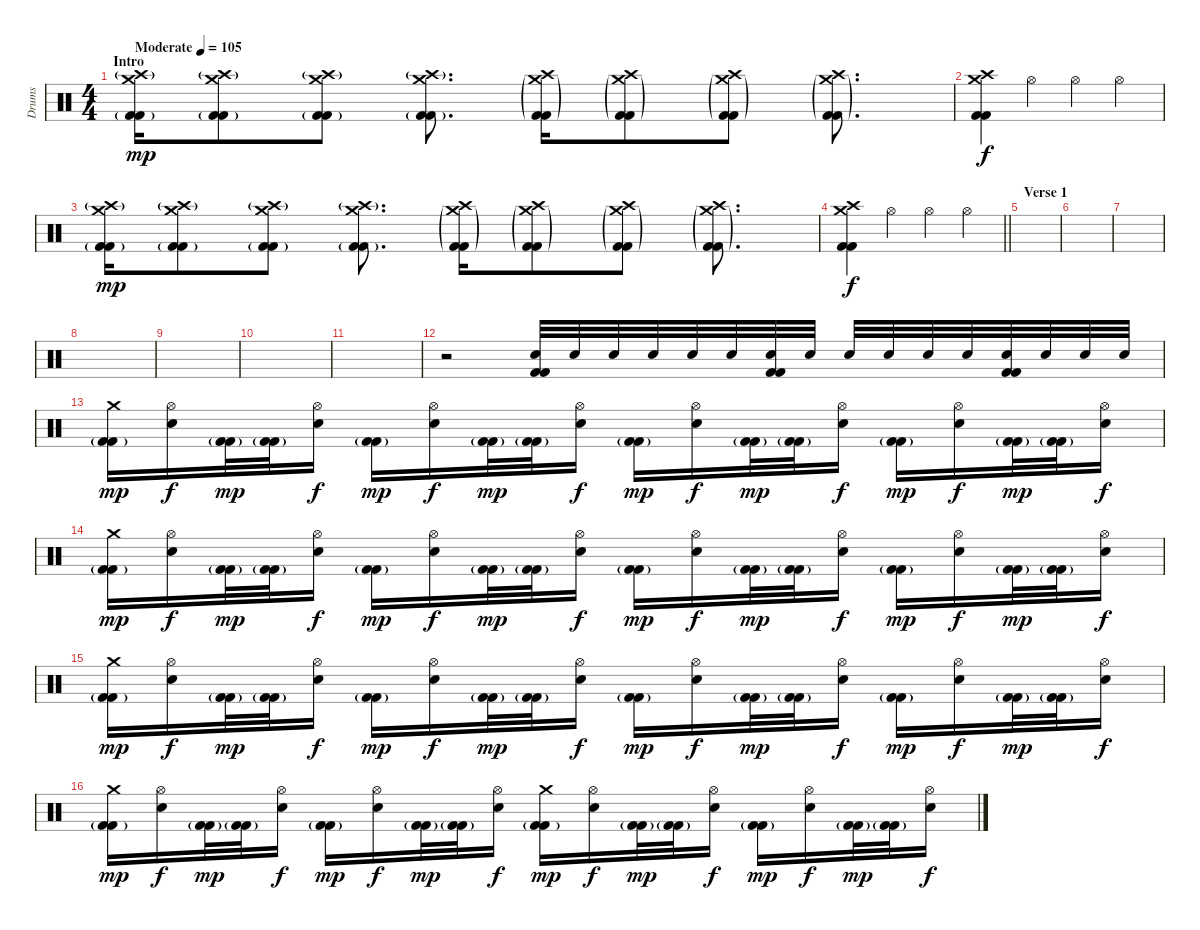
\track ("Drums" "Drums") {instrument percussion}
\staff {score}
\articulation defaults
\ts (4 4)
\section ("" "Intro")
\tempo (105 "Moderate")
\clef neutral
\ks c
("Crash medium (hit)" "Crash high (hit)"{g} "Kick (hit) 2"{g} "Kick (hit) 2").16{dy mp} ("Crash medium (hit)" "Crash high (hit)"{g} "Kick (hit) 2"{g} "Kick (hit) 2").8 ("Crash medium (hit)" "Crash high (hit)"{g} "Kick (hit) 2"{g} "Kick (hit) 2").8 ("Crash medium (hit)" "Crash high (hit)"{g} "Kick (hit) 2"{g} "Kick (hit) 2").8{d} ("Crash high (hit)" "Crash medium (hit)"{g} "Kick (hit) 2"{g} "Kick (hit) 2").16 ("Crash high (hit)" "Crash medium (hit)"{g} "Kick (hit) 2"{g} "Kick (hit) 2").8 ("Crash high (hit)" "Crash medium (hit)"{g} "Kick (hit) 2"{g} "Kick (hit) 2").8 ("Crash high (hit)" "Crash medium (hit)"{g} "Kick (hit) 2"{g} "Kick (hit) 2").8{d} |
("Crash high (hit)" "Crash medium (hit)" "Kick (hit) 2" "Kick (hit) 2").4{dy f} "Hi-Hat (open)".4 "Hi-Hat (open)".4 "Hi-Hat (open)".4 |
("Crash medium (hit)" "Crash high (hit)"{g} "Kick (hit) 2"{g} "Kick (hit) 2").16{dy mp} ("Crash medium (hit)" "Crash high (hit)"{g} "Kick (hit) 2"{g} "Kick (hit) 2").8 ("Crash medium (hit)" "Crash high (hit)"{g} "Kick (hit) 2"{g} "Kick (hit) 2").8 ("Crash medium (hit)" "Crash high (hit)"{g} "Kick (hit) 2"{g} "Kick (hit) 2").8{d} ("Crash high (hit)" "Crash medium (hit)"{g} "Kick (hit) 2"{g} "Kick (hit) 2").16 ("Crash high (hit)" "Crash medium (hit)"{g} "Kick (hit) 2"{g} "Kick (hit) 2").8 ("Crash high (hit)" "Crash medium (hit)"{g} "Kick (hit) 2"{g} "Kick (hit) 2").8 ("Crash high (hit)" "Crash medium (hit)"{g} "Kick (hit) 2"{g} "Kick (hit) 2").8{d} |
\barLineRight lightlight
("Crash high (hit)" "Crash medium (hit)" "Kick (hit) 2" "Kick (hit) 2").4{dy f} "Hi-Hat (open)".4 "Hi-Hat (open)".4 "Hi-Hat (open)".4 |
\section ("" "Verse 1")
|
|
|
|
|
|
|
r.2 ("Electric Snare (hit)" "Kick (hit) 2" "Kick (hit) 2").32 "Electric Snare (hit)".32 "Electric Snare (hit)".32 "Electric Snare (hit)".32 "Electric Snare (hit)".32 "Electric Snare (hit)".32 ("Electric Snare (hit)" "Kick (hit) 2" "Kick (hit) 2").32 "Electric Snare (hit)".32 "Electric Snare (hit)".32 "Electric Snare (hit)".32 "Electric Snare (hit)".32 "Electric Snare (hit)".32 ("Electric Snare (hit)" "Kick (hit) 2" "Kick (hit) 2").32 "Electric Snare (hit)".32 "Electric Snare (hit)".32 "Electric Snare (hit)".32 |
("Crash medium (hit)" "Kick (hit) 2"{g} "Kick (hit) 2").16{dy mp} ("Hi-Hat (open)" "Electric Snare (hit)").16{dy f} ("Kick (hit) 2"{g} "Kick (hit) 2").32{dy mp} ("Kick (hit) 2"{g} "Kick (hit) 2").32 ("Hi-Hat (open)" "Electric Snare (hit)").16{dy f} ("Kick (hit) 2"{g} "Kick (hit) 2").16{dy mp} ("Hi-Hat (open)" "Electric Snare (hit)").16{dy f} ("Kick (hit) 2"{g} "Kick (hit) 2").32{dy mp} ("Kick (hit) 2"{g} "Kick (hit) 2").32 ("Hi-Hat (open)" "Electric Snare (hit)").16{dy f} ("Kick (hit) 2"{g} "Kick (hit) 2").16{dy mp} ("Hi-Hat (open)" "Electric Snare (hit)").16{dy f} ("Kick (hit) 2"{g} "Kick (hit) 2").32{dy mp} ("Kick (hit) 2"{g} "Kick (hit) 2").32 ("Hi-Hat (open)" "Electric Snare (hit)").16{dy f} ("Kick (hit) 2"{g} "Kick (hit) 2").16{dy mp} ("Hi-Hat (open)" "Electric Snare (hit)").16{dy f} ("Kick (hit) 2"{g} "Kick (hit) 2").32{dy mp} ("Kick (hit) 2"{g} "Kick (hit) 2").32 ("Hi-Hat (open)" "Electric Snare (hit)").16{dy f} |
("Crash medium (hit)" "Kick (hit) 2"{g} "Kick (hit) 2").16{dy mp} ("Hi-Hat (open)" "Electric Snare (hit)").16{dy f} ("Kick (hit) 2"{g} "Kick (hit) 2").32{dy mp} ("Kick (hit) 2"{g} "Kick (hit) 2").32 ("Hi-Hat (open)" "Electric Snare (hit)").16{dy f} ("Kick (hit) 2"{g} "Kick (hit) 2").16{dy mp} ("Hi-Hat (open)" "Electric Snare (hit)").16{dy f} ("Kick (hit) 2"{g} "Kick (hit) 2").32{dy mp} ("Kick (hit) 2"{g} "Kick (hit) 2").32 ("Hi-Hat (open)" "Electric Snare (hit)").16{dy f} ("Kick (hit) 2"{g} "Kick (hit) 2").16{dy mp} ("Hi-Hat (open)" "Electric Snare (hit)").16{dy f} ("Kick (hit) 2"{g} "Kick (hit) 2").32{dy mp} ("Kick (hit) 2"{g} "Kick (hit) 2").32 ("Hi-Hat (open)" "Electric Snare (hit)").16{dy f} ("Kick (hit) 2"{g} "Kick (hit) 2").16{dy mp} ("Hi-Hat (open)" "Electric Snare (hit)").16{dy f} ("Kick (hit) 2"{g} "Kick (hit) 2").32{dy mp} ("Kick (hit) 2"{g} "Kick (hit) 2").32 ("Hi-Hat (open)" "Electric Snare (hit)").16{dy f} |
("Crash medium (hit)" "Kick (hit) 2"{g} "Kick (hit) 2").16{dy mp} ("Hi-Hat (open)" "Electric Snare (hit)").16{dy f} ("Kick (hit) 2"{g} "Kick (hit) 2").32{dy mp} ("Kick (hit) 2"{g} "Kick (hit) 2").32 ("Hi-Hat (open)" "Electric Snare (hit)").16{dy f} ("Kick (hit) 2"{g} "Kick (hit) 2").16{dy mp} ("Hi-Hat (open)" "Electric Snare (hit)").16{dy f} ("Kick (hit) 2"{g} "Kick (hit) 2").32{dy mp} ("Kick (hit) 2"{g} "Kick (hit) 2").32 ("Hi-Hat (open)" "Electric Snare (hit)").16{dy f} ("Kick (hit) 2"{g} "Kick (hit) 2").16{dy mp} ("Hi-Hat (open)" "Electric Snare (hit)").16{dy f} ("Kick (hit) 2"{g} "Kick (hit) 2").32{dy mp} ("Kick (hit) 2"{g} "Kick (hit) 2").32 ("Hi-Hat (open)" "Electric Snare (hit)").16{dy f} ("Kick (hit) 2"{g} "Kick (hit) 2").16{dy mp} ("Hi-Hat (open)" "Electric Snare (hit)").16{dy f} ("Kick (hit) 2"{g} "Kick (hit) 2").32{dy mp} ("Kick (hit) 2"{g} "Kick (hit) 2").32 ("Hi-Hat (open)" "Electric Snare (hit)").16{dy f} |
("Crash medium (hit)" "Kick (hit) 2"{g} "Kick (hit) 2").16{dy mp} ("Hi-Hat (open)" "Electric Snare (hit)").16{dy f} ("Kick (hit) 2"{g} "Kick (hit) 2").32{dy mp} ("Kick (hit) 2"{g} "Kick (hit) 2").32 ("Hi-Hat (open)" "Electric Snare (hit)").16{dy f} ("Kick (hit) 2"{g} "Kick (hit) 2").16{dy mp} ("Hi-Hat (open)" "Electric Snare (hit)").16{dy f} ("Kick (hit) 2"{g} "Kick (hit) 2").32{dy mp} ("Kick (hit) 2"{g} "Kick (hit) 2").32 ("Hi-Hat (open)" "Electric Snare (hit)").16{dy f} ("Crash medium (hit)" "Kick (hit) 2"{g} "Kick (hit) 2").16{dy mp} ("Hi-Hat (open)" "Electric Snare (hit)").16{dy f} ("Kick (hit) 2"{g} "Kick (hit) 2").32{dy mp} ("Kick (hit) 2"{g} "Kick (hit) 2").32 ("Hi-Hat (open)" "Electric Snare (hit)").16{dy f} ("Kick (hit) 2"{g} "Kick (hit) 2").16{dy mp} ("Hi-Hat (open)" "Electric Snare (hit)").16{dy f} ("Kick (hit) 2"{g} "Kick (hit) 2").32{dy mp} ("Kick (hit) 2"{g} "Kick (hit) 2").32 ("Hi-Hat (open)" "Electric Snare (hit)").16{dy f}
